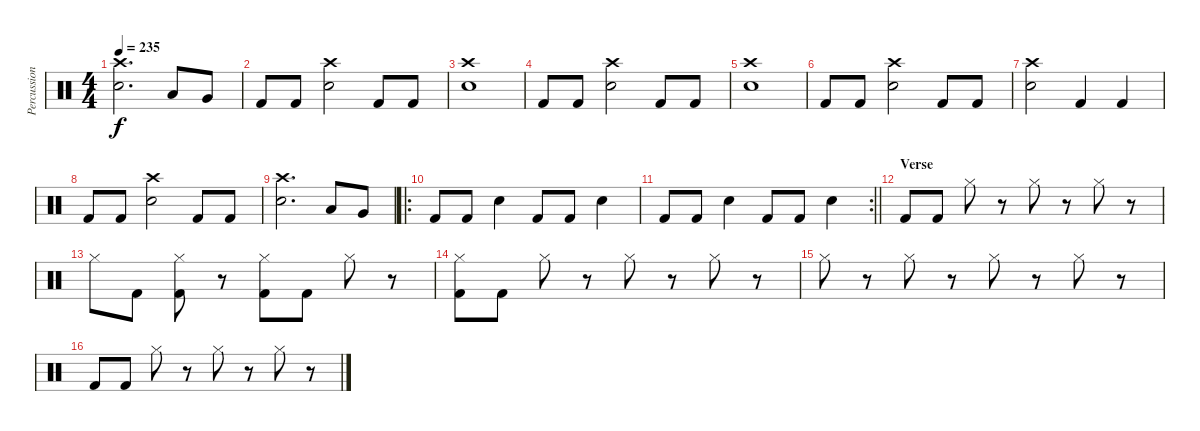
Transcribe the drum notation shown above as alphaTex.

\track ("Percussion" "Percussion") {instrument percussion}
\staff {score}
\articulation defaults
\ts (4 4)
\tempo 235
\clef neutral
\ks c
("Crash high (hit)" "Electric Snare (hit)").2{d dy f} "Low Tom (hit)".8 "Very Low Tom (hit)".8 |
"Kick (hit) 2".8 "Kick (hit) 2".8 ("Crash high (hit)" "Electric Snare (hit)").2 "Kick (hit) 2".8 "Kick (hit) 2".8 |
("Crash high (hit)" "Electric Snare (hit)").1 |
"Kick (hit) 2".8 "Kick (hit) 2".8 ("Electric Snare (hit)" "Crash high (hit)").2 "Kick (hit) 2".8 "Kick (hit) 2".8 |
("Electric Snare (hit)" "Crash high (hit)").1 |
"Kick (hit) 2".8 "Kick (hit) 2".8 ("Electric Snare (hit)" "Crash high (hit)").2 "Kick (hit) 2".8 "Kick (hit) 2".8 |
("Electric Snare (hit)" "Crash high (hit)").2 "Kick (hit) 2".4 "Kick (hit) 2".4 |
"Kick (hit) 2".8 "Kick (hit) 2".8 ("Crash high (hit)" "Electric Snare (hit)").2 "Kick (hit) 2".8 "Kick (hit) 2".8 |
("Crash high (hit)" "Electric Snare (hit)").2{d} "Low Tom (hit)".8 "Very Low Tom (hit)".8 |
\ro "Kick (hit) 2".8 "Kick (hit) 2".8 "Electric Snare (hit)".4 "Kick (hit) 2".8 "Kick (hit) 2".8 "Electric Snare (hit)".4
|
\rc 2
\barLineRight lightlight "Kick (hit) 2".8 "Kick (hit) 2".8 "Electric Snare (hit)".4 "Kick (hit) 2".8 "Kick (hit) 2".8 "Electric Snare (hit)".4
|
\section ("" "Verse")
"Kick (hit) 2".8 "Kick (hit) 2".8 "Hi-Hat (closed)".8 r.8 "Hi-Hat (closed)".8 r.8 "Hi-Hat (closed)".8 r.8 |
"Hi-Hat (closed)".8 "Kick (hit) 2".8 ("Hi-Hat (closed)" "Kick (hit) 2").8 r.8 ("Hi-Hat (closed)" "Kick (hit) 2").8 "Kick (hit) 2".8 "Hi-Hat (closed)".8 r.8 |
("Hi-Hat (closed)" "Kick (hit) 2").8 "Kick (hit) 2".8 "Hi-Hat (closed)".8 r.8 "Hi-Hat (closed)".8 r.8 "Hi-Hat (closed)".8 r.8 |
"Hi-Hat (closed)".8 r.8 "Hi-Hat (closed)".8 r.8 "Hi-Hat (closed)".8 r.8 "Hi-Hat (closed)".8 r.8 |
"Kick (hit) 2".8 "Kick (hit) 2".8 "Hi-Hat (closed)".8 r.8 "Hi-Hat (closed)".8 r.8 "Hi-Hat (closed)".8 r.8
